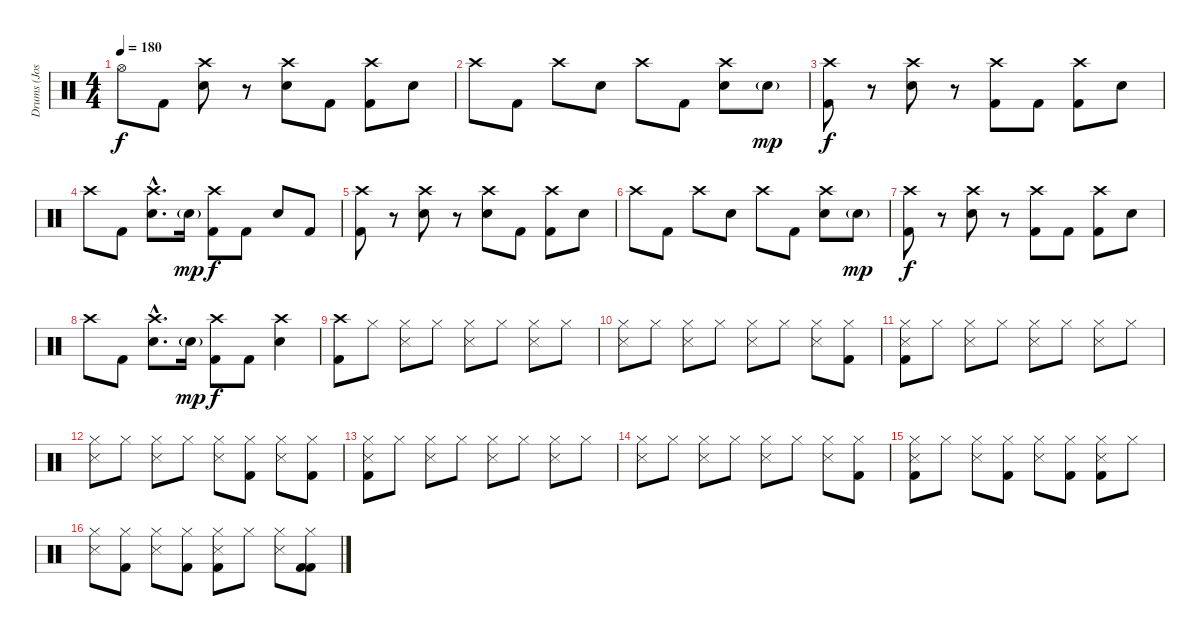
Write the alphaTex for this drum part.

\track ("Drums (Jose Pasilas II)" "Drums (Jos") {instrument percussion}
\staff {score}
\articulation defaults
\ts (4 4)
\tempo 180
\clef neutral
\ks c "Hi-Hat (open)".8{dy f} "Kick (hit) 2".8
("Snare (hit) 2" "Crash high (hit)").8 r.8 ("Snare (hit) 2" "Crash high (hit)").8 "Kick (hit) 2".8 ("Crash high (hit)" "Kick (hit) 2").8 "Snare (hit) 2".8 |
"Crash high (hit)".8 "Kick (hit) 2".8 "Crash high (hit)".8 "Snare (hit) 2".8 "Crash high (hit)".8 "Kick (hit) 2".8 ("Crash high (hit)" "Snare (hit) 2").8 "Snare (hit) 2"{g}.8{dy mp} |
("Kick (hit) 2" "Crash high (hit)").8{dy f} r.8 ("Crash high (hit)" "Snare (hit) 2").8 r.8 ("Kick (hit) 2" "Crash high (hit)").8 "Kick (hit) 2".8 ("Crash high (hit)" "Kick (hit) 2").8 "Snare (hit) 2".8 |
"Crash high (hit)".8 "Kick (hit) 2".8 ("Snare (hit) 2"{hac} "Crash high (hit)"{hac}).8{d} "Snare (hit) 2"{g}.16{dy mp} ("Kick (hit) 2" "Crash high (hit)").8{dy f} "Kick (hit) 2".8 "Snare (hit) 2".8 "Kick (hit) 2".8 |
("Crash high (hit)" "Kick (hit) 2").8 r.8 ("Snare (hit) 2" "Crash high (hit)").8 r.8 ("Snare (hit) 2" "Crash high (hit)").8 "Kick (hit) 2".8 ("Crash high (hit)" "Kick (hit) 2").8 "Snare (hit) 2".8 |
"Crash high (hit)".8 "Kick (hit) 2".8 "Crash high (hit)".8 "Snare (hit) 2".8 "Crash high (hit)".8 "Kick (hit) 2".8 ("Crash high (hit)" "Snare (hit) 2").8 "Snare (hit) 2"{g}.8{dy mp} |
("Kick (hit) 2" "Crash high (hit)").8{dy f} r.8 ("Crash high (hit)" "Snare (hit) 2").8 r.8 ("Kick (hit) 2" "Crash high (hit)").8 "Kick (hit) 2".8 ("Crash high (hit)" "Kick (hit) 2").8 "Snare (hit) 2".8 |
"Crash high (hit)".8 "Kick (hit) 2".8 ("Snare (hit) 2"{hac} "Crash high (hit)"{hac}).8{d} "Snare (hit) 2"{g}.16{dy mp} ("Kick (hit) 2" "Crash high (hit)").8{dy f} "Kick (hit) 2".8 ("Snare (hit) 2" "Crash high (hit)").4 |
("Kick (hit) 2" "Crash high (hit)").8 "Hi-Hat (closed)".8 ("Hi-Hat (closed)" "Snare (side stick) 3").8 "Hi-Hat (closed)".8 ("Hi-Hat (closed)" "Snare (side stick) 3").8 "Hi-Hat (closed)".8 ("Hi-Hat (closed)" "Snare (side stick) 3").8 "Hi-Hat (closed)".8 |
("Snare (side stick) 3" "Hi-Hat (closed)").8 "Hi-Hat (closed)".8 ("Hi-Hat (closed)" "Snare (side stick) 3").8 "Hi-Hat (closed)".8 ("Hi-Hat (closed)" "Snare (side stick) 3").8 "Hi-Hat (closed)".8 ("Hi-Hat (closed)" "Snare (side stick) 3").8 ("Hi-Hat (closed)" "Kick (hit) 2").8 |
("Snare (side stick) 3" "Hi-Hat (closed)" "Kick (hit) 2").8 "Hi-Hat (closed)".8 ("Hi-Hat (closed)" "Snare (side stick) 3").8 "Hi-Hat (closed)".8 ("Hi-Hat (closed)" "Snare (side stick) 3").8 "Hi-Hat (closed)".8 ("Hi-Hat (closed)" "Snare (side stick) 3").8 "Hi-Hat (closed)".8 |
("Hi-Hat (closed)" "Snare (side stick) 3").8 "Hi-Hat (closed)".8 ("Hi-Hat (closed)" "Snare (side stick) 3").8 "Hi-Hat (closed)".8 ("Hi-Hat (closed)" "Snare (side stick) 3").8 ("Hi-Hat (closed)" "Kick (hit) 2").8 ("Hi-Hat (closed)" "Snare (side stick) 3").8 ("Hi-Hat (closed)" "Kick (hit) 2").8 |
("Snare (side stick) 3" "Hi-Hat (closed)" "Kick (hit) 2").8 "Hi-Hat (closed)".8 ("Hi-Hat (closed)" "Snare (side stick) 3").8 "Hi-Hat (closed)".8 ("Hi-Hat (closed)" "Snare (side stick) 3").8 "Hi-Hat (closed)".8 ("Hi-Hat (closed)" "Snare (side stick) 3").8 "Hi-Hat (closed)".8 |
("Snare (side stick) 3" "Hi-Hat (closed)").8 "Hi-Hat (closed)".8 ("Hi-Hat (closed)" "Snare (side stick) 3").8 "Hi-Hat (closed)".8 ("Hi-Hat (closed)" "Snare (side stick) 3").8 "Hi-Hat (closed)".8 ("Hi-Hat (closed)" "Snare (side stick) 3").8 ("Hi-Hat (closed)" "Kick (hit) 2").8 |
("Snare (side stick) 3" "Hi-Hat (closed)" "Kick (hit) 2").8 "Hi-Hat (closed)".8 ("Hi-Hat (closed)" "Snare (side stick) 3").8 ("Hi-Hat (closed)" "Kick (hit) 2").8 ("Hi-Hat (closed)" "Snare (side stick) 3").8 ("Hi-Hat (closed)" "Kick (hit) 2").8 ("Hi-Hat (closed)" "Snare (side stick) 3" "Kick (hit) 2").8 "Hi-Hat (closed)".8 |
("Snare (side stick) 3" "Hi-Hat (closed)").8 ("Hi-Hat (closed)" "Kick (hit) 2").8 ("Hi-Hat (closed)" "Snare (side stick) 3").8 ("Hi-Hat (closed)" "Kick (hit) 2").8 ("Hi-Hat (closed)" "Snare (side stick) 3" "Kick (hit) 2").8 "Hi-Hat (closed)".8 ("Hi-Hat (closed)" "Snare (side stick) 3").8 ("Hi-Hat (closed)" "Kick (hit) 2" "Kick (hit) 2").8
